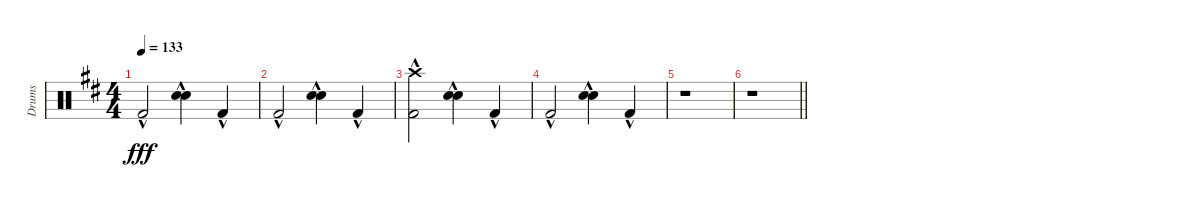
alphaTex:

\track ("Drums" "Drums") {instrument percussion}
\staff {score}
\articulation defaults
\ts (4 4)
\tempo 133
\clef neutral
\ks bminor "Kick (hit) 2"{hac}.2{dy fff}
("Hand Clap (hit)"{hac} "Snare (hit) 2"{hac}).4 "Kick (hit) 2"{hac}.4 |
"Kick (hit) 2"{hac}.2 ("Hand Clap (hit)"{hac} "Snare (hit) 2"{hac}).4 "Kick (hit) 2"{hac}.4 |
("Crash high (hit)"{hac} "Kick (hit) 2"{hac}).2 ("Hand Clap (hit)"{hac} "Snare (hit) 2"{hac}).4 "Kick (hit) 2"{hac}.4 |
"Kick (hit) 2"{hac}.2 ("Hand Clap (hit)"{hac} "Snare (hit) 2"{hac}).4 "Kick (hit) 2"{hac}.4 |
r.1 |
\barLineRight lightlight
r.1
